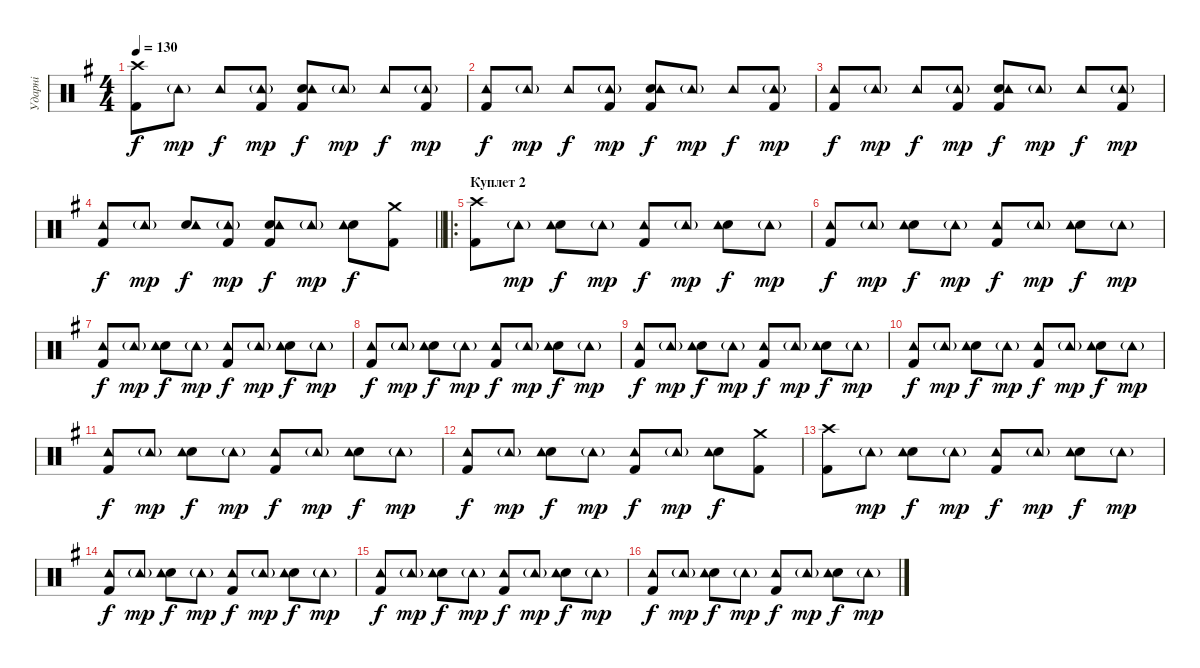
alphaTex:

\track ("Ударні" "Ударні") {instrument percussion}
\staff {score}
\articulation defaults
\ts (4 4)
\tempo 130
\clef neutral
\ks eminor
("Kick (hit) 2" "Crash high (hit)").8{dy f} "Tambourine (hit)"{g}.8{dy mp} "Tambourine (hit)".8{dy f} ("Kick (hit) 2" "Tambourine (hit)"{g}).8{dy mp} ("Kick (hit) 2" "Snare (hit) 2" "Tambourine (hit)").8{dy f} "Tambourine (hit)"{g}.8{dy mp} "Tambourine (hit)".8{dy f} ("Kick (hit) 2" "Tambourine (hit)"{g}).8{dy mp} |
("Kick (hit) 2" "Tambourine (hit)").8{dy f} "Tambourine (hit)"{g}.8{dy mp} "Tambourine (hit)".8{dy f} ("Kick (hit) 2" "Tambourine (hit)"{g}).8{dy mp} ("Kick (hit) 2" "Snare (hit) 2" "Tambourine (hit)").8{dy f} "Tambourine (hit)"{g}.8{dy mp} "Tambourine (hit)".8{dy f} ("Kick (hit) 2" "Tambourine (hit)"{g}).8{dy mp} |
("Kick (hit) 2" "Tambourine (hit)").8{dy f} "Tambourine (hit)"{g}.8{dy mp} "Tambourine (hit)".8{dy f} ("Kick (hit) 2" "Tambourine (hit)"{g}).8{dy mp} ("Kick (hit) 2" "Snare (hit) 2" "Tambourine (hit)").8{dy f} "Tambourine (hit)"{g}.8{dy mp} "Tambourine (hit)".8{dy f} ("Kick (hit) 2" "Tambourine (hit)"{g}).8{dy mp} |
\barLineRight lightlight
("Kick (hit) 2" "Tambourine (hit)").8{dy f} "Tambourine (hit)"{g}.8{dy mp} ("Snare (hit) 2" "Tambourine (hit)").8{dy f} ("Kick (hit) 2" "Tambourine (hit)"{g}).8{dy mp} ("Kick (hit) 2" "Snare (hit) 2" "Tambourine (hit)").8{dy f} "Tambourine (hit)"{g}.8{dy mp} ("Snare (hit) 2" "Tambourine (hit)").8{dy f} ("Kick (hit) 2" "Crash medium (hit)").8 |
\ro
\section ("" "Куплет 2")
("Kick (hit) 2" "Crash high (hit)").8 "Tambourine (hit)"{g}.8{dy mp} ("Snare (hit) 2" "Tambourine (hit)").8{dy f} "Tambourine (hit)"{g}.8{dy mp} ("Kick (hit) 2" "Tambourine (hit)").8{dy f} "Tambourine (hit)"{g}.8{dy mp} ("Snare (hit) 2" "Tambourine (hit)").8{dy f} "Tambourine (hit)"{g}.8{dy mp} |
("Kick (hit) 2" "Tambourine (hit)").8{dy f} "Tambourine (hit)"{g}.8{dy mp} ("Snare (hit) 2" "Tambourine (hit)").8{dy f} "Tambourine (hit)"{g}.8{dy mp} ("Kick (hit) 2" "Tambourine (hit)").8{dy f} "Tambourine (hit)"{g}.8{dy mp} ("Snare (hit) 2" "Tambourine (hit)").8{dy f} "Tambourine (hit)"{g}.8{dy mp} |
("Kick (hit) 2" "Tambourine (hit)").8{dy f} "Tambourine (hit)"{g}.8{dy mp} ("Snare (hit) 2" "Tambourine (hit)").8{dy f} "Tambourine (hit)"{g}.8{dy mp} ("Kick (hit) 2" "Tambourine (hit)").8{dy f} "Tambourine (hit)"{g}.8{dy mp} ("Snare (hit) 2" "Tambourine (hit)").8{dy f} "Tambourine (hit)"{g}.8{dy mp} |
("Kick (hit) 2" "Tambourine (hit)").8{dy f} "Tambourine (hit)"{g}.8{dy mp} ("Snare (hit) 2" "Tambourine (hit)").8{dy f} "Tambourine (hit)"{g}.8{dy mp} ("Kick (hit) 2" "Tambourine (hit)").8{dy f} "Tambourine (hit)"{g}.8{dy mp} ("Snare (hit) 2" "Tambourine (hit)").8{dy f} "Tambourine (hit)"{g}.8{dy mp} |
("Kick (hit) 2" "Tambourine (hit)").8{dy f} "Tambourine (hit)"{g}.8{dy mp} ("Snare (hit) 2" "Tambourine (hit)").8{dy f} "Tambourine (hit)"{g}.8{dy mp} ("Kick (hit) 2" "Tambourine (hit)").8{dy f} "Tambourine (hit)"{g}.8{dy mp} ("Snare (hit) 2" "Tambourine (hit)").8{dy f} "Tambourine (hit)"{g}.8{dy mp} |
("Kick (hit) 2" "Tambourine (hit)").8{dy f} "Tambourine (hit)"{g}.8{dy mp} ("Snare (hit) 2" "Tambourine (hit)").8{dy f} "Tambourine (hit)"{g}.8{dy mp} ("Kick (hit) 2" "Tambourine (hit)").8{dy f} "Tambourine (hit)"{g}.8{dy mp} ("Snare (hit) 2" "Tambourine (hit)").8{dy f} "Tambourine (hit)"{g}.8{dy mp} |
("Kick (hit) 2" "Tambourine (hit)").8{dy f} "Tambourine (hit)"{g}.8{dy mp} ("Snare (hit) 2" "Tambourine (hit)").8{dy f} "Tambourine (hit)"{g}.8{dy mp} ("Kick (hit) 2" "Tambourine (hit)").8{dy f} "Tambourine (hit)"{g}.8{dy mp} ("Snare (hit) 2" "Tambourine (hit)").8{dy f} "Tambourine (hit)"{g}.8{dy mp} |
("Kick (hit) 2" "Tambourine (hit)").8{dy f} "Tambourine (hit)"{g}.8{dy mp} ("Snare (hit) 2" "Tambourine (hit)").8{dy f} "Tambourine (hit)"{g}.8{dy mp} ("Kick (hit) 2" "Tambourine (hit)").8{dy f} "Tambourine (hit)"{g}.8{dy mp} ("Snare (hit) 2" "Tambourine (hit)").8{dy f} ("Kick (hit) 2" "Crash medium (hit)").8 |
("Kick (hit) 2" "Crash high (hit)").8 "Tambourine (hit)"{g}.8{dy mp} ("Snare (hit) 2" "Tambourine (hit)").8{dy f} "Tambourine (hit)"{g}.8{dy mp} ("Kick (hit) 2" "Tambourine (hit)").8{dy f} "Tambourine (hit)"{g}.8{dy mp} ("Snare (hit) 2" "Tambourine (hit)").8{dy f} "Tambourine (hit)"{g}.8{dy mp} |
("Kick (hit) 2" "Tambourine (hit)").8{dy f} "Tambourine (hit)"{g}.8{dy mp} ("Snare (hit) 2" "Tambourine (hit)").8{dy f} "Tambourine (hit)"{g}.8{dy mp} ("Kick (hit) 2" "Tambourine (hit)").8{dy f} "Tambourine (hit)"{g}.8{dy mp} ("Snare (hit) 2" "Tambourine (hit)").8{dy f} "Tambourine (hit)"{g}.8{dy mp} |
("Kick (hit) 2" "Tambourine (hit)").8{dy f} "Tambourine (hit)"{g}.8{dy mp} ("Snare (hit) 2" "Tambourine (hit)").8{dy f} "Tambourine (hit)"{g}.8{dy mp} ("Kick (hit) 2" "Tambourine (hit)").8{dy f} "Tambourine (hit)"{g}.8{dy mp} ("Snare (hit) 2" "Tambourine (hit)").8{dy f} "Tambourine (hit)"{g}.8{dy mp} |
("Kick (hit) 2" "Tambourine (hit)").8{dy f} "Tambourine (hit)"{g}.8{dy mp} ("Snare (hit) 2" "Tambourine (hit)").8{dy f} "Tambourine (hit)"{g}.8{dy mp} ("Kick (hit) 2" "Tambourine (hit)").8{dy f} "Tambourine (hit)"{g}.8{dy mp} ("Snare (hit) 2" "Tambourine (hit)").8{dy f} "Tambourine (hit)"{g}.8{dy mp}
